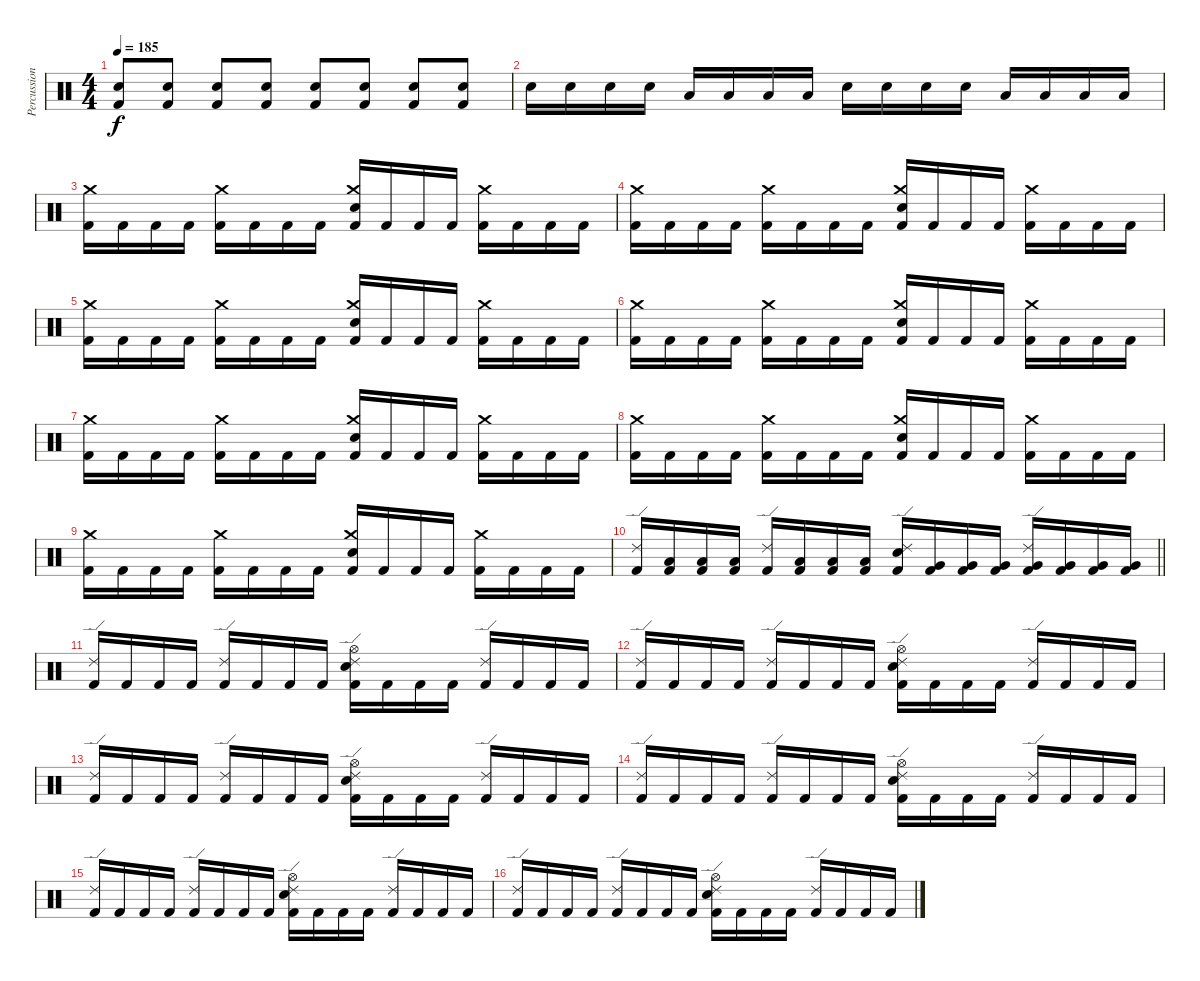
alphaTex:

\track ("Percussion" "Percussion") {instrument percussion}
\staff {score}
\articulation defaults
\ts (4 4)
\tempo 185
\clef neutral
\ks c
("Electric Snare (hit)" "Kick (hit) 2").8{dy f} ("Electric Snare (hit)" "Kick (hit) 2").8 ("Electric Snare (hit)" "Kick (hit) 2").8 ("Electric Snare (hit)" "Kick (hit) 2").8 ("Electric Snare (hit)" "Kick (hit) 2").8 ("Electric Snare (hit)" "Kick (hit) 2").8 ("Electric Snare (hit)" "Kick (hit) 2").8 ("Electric Snare (hit)" "Kick (hit) 2").8 |
"Electric Snare (hit)".16 "Electric Snare (hit)".16 "Electric Snare (hit)".16 "Electric Snare (hit)".16 "Low Floor Tom (hit)".16 "Low Floor Tom (hit)".16 "Low Floor Tom (hit)".16 "Low Floor Tom (hit)".16 "Electric Snare (hit)".16 "Electric Snare (hit)".16 "Electric Snare (hit)".16 "Electric Snare (hit)".16 "Low Floor Tom (hit)".16 "Low Floor Tom (hit)".16 "Low Floor Tom (hit)".16 "Low Floor Tom (hit)".16 |
("Crash medium (hit)" "Kick (hit) 2").16 "Kick (hit) 2".16 "Kick (hit) 2".16 "Kick (hit) 2".16 ("Crash medium (hit)" "Kick (hit) 2").16 "Kick (hit) 2".16 "Kick (hit) 2".16 "Kick (hit) 2".16 ("Crash medium (hit)" "Snare (hit) 2" "Kick (hit) 2").16 "Kick (hit) 2".16 "Kick (hit) 2".16 "Kick (hit) 2".16 ("Crash medium (hit)" "Kick (hit) 2").16 "Kick (hit) 2".16 "Kick (hit) 2".16 "Kick (hit) 2".16 |
("Crash medium (hit)" "Kick (hit) 2").16 "Kick (hit) 2".16 "Kick (hit) 2".16 "Kick (hit) 2".16 ("Crash medium (hit)" "Kick (hit) 2").16 "Kick (hit) 2".16 "Kick (hit) 2".16 "Kick (hit) 2".16 ("Crash medium (hit)" "Snare (hit) 2" "Kick (hit) 2").16 "Kick (hit) 2".16 "Kick (hit) 2".16 "Kick (hit) 2".16 ("Crash medium (hit)" "Kick (hit) 2").16 "Kick (hit) 2".16 "Kick (hit) 2".16 "Kick (hit) 2".16 |
("Crash medium (hit)" "Kick (hit) 2").16 "Kick (hit) 2".16 "Kick (hit) 2".16 "Kick (hit) 2".16 ("Crash medium (hit)" "Kick (hit) 2").16 "Kick (hit) 2".16 "Kick (hit) 2".16 "Kick (hit) 2".16 ("Crash medium (hit)" "Snare (hit) 2" "Kick (hit) 2").16 "Kick (hit) 2".16 "Kick (hit) 2".16 "Kick (hit) 2".16 ("Crash medium (hit)" "Kick (hit) 2").16 "Kick (hit) 2".16 "Kick (hit) 2".16 "Kick (hit) 2".16 |
("Crash medium (hit)" "Kick (hit) 2").16 "Kick (hit) 2".16 "Kick (hit) 2".16 "Kick (hit) 2".16 ("Crash medium (hit)" "Kick (hit) 2").16 "Kick (hit) 2".16 "Kick (hit) 2".16 "Kick (hit) 2".16 ("Crash medium (hit)" "Snare (hit) 2" "Kick (hit) 2").16 "Kick (hit) 2".16 "Kick (hit) 2".16 "Kick (hit) 2".16 ("Crash medium (hit)" "Kick (hit) 2").16 "Kick (hit) 2".16 "Kick (hit) 2".16 "Kick (hit) 2".16 |
("Crash medium (hit)" "Kick (hit) 2").16 "Kick (hit) 2".16 "Kick (hit) 2".16 "Kick (hit) 2".16 ("Crash medium (hit)" "Kick (hit) 2").16 "Kick (hit) 2".16 "Kick (hit) 2".16 "Kick (hit) 2".16 ("Crash medium (hit)" "Snare (hit) 2" "Kick (hit) 2").16 "Kick (hit) 2".16 "Kick (hit) 2".16 "Kick (hit) 2".16 ("Crash medium (hit)" "Kick (hit) 2").16 "Kick (hit) 2".16 "Kick (hit) 2".16 "Kick (hit) 2".16 |
("Crash medium (hit)" "Kick (hit) 2").16 "Kick (hit) 2".16 "Kick (hit) 2".16 "Kick (hit) 2".16 ("Crash medium (hit)" "Kick (hit) 2").16 "Kick (hit) 2".16 "Kick (hit) 2".16 "Kick (hit) 2".16 ("Crash medium (hit)" "Snare (hit) 2" "Kick (hit) 2").16 "Kick (hit) 2".16 "Kick (hit) 2".16 "Kick (hit) 2".16 ("Crash medium (hit)" "Kick (hit) 2").16 "Kick (hit) 2".16 "Kick (hit) 2".16 "Kick (hit) 2".16 |
("Crash medium (hit)" "Kick (hit) 2").16 "Kick (hit) 2".16 "Kick (hit) 2".16 "Kick (hit) 2".16 ("Crash medium (hit)" "Kick (hit) 2").16 "Kick (hit) 2".16 "Kick (hit) 2".16 "Kick (hit) 2".16 ("Crash medium (hit)" "Snare (hit) 2" "Kick (hit) 2").16 "Kick (hit) 2".16 "Kick (hit) 2".16 "Kick (hit) 2".16 ("Crash medium (hit)" "Kick (hit) 2").16 "Kick (hit) 2".16 "Kick (hit) 2".16 "Kick (hit) 2".16 |
\barLineRight lightlight
("Ride (edge) 2" "Kick (hit) 2").16 ("Low Floor Tom (hit)" "Kick (hit) 2").16 ("Low Floor Tom (hit)" "Kick (hit) 2").16 ("Low Floor Tom (hit)" "Kick (hit) 2").16 ("Ride (edge) 2" "Kick (hit) 2").16 ("Low Floor Tom (hit)" "Kick (hit) 2").16 ("Low Floor Tom (hit)" "Kick (hit) 2").16 ("Low Floor Tom (hit)" "Kick (hit) 2").16 ("Ride (edge) 2" "Snare (hit) 2" "Kick (hit) 2").16 ("Very Low Tom (hit)" "Kick (hit) 2").16 ("Very Low Tom (hit)" "Kick (hit) 2").16 ("Very Low Tom (hit)" "Kick (hit) 2").16 ("Ride (edge) 2" "Very Low Tom (hit)" "Kick (hit) 2").16 ("Very Low Tom (hit)" "Kick (hit) 2").16 ("Very Low Tom (hit)" "Kick (hit) 2").16 ("Very Low Tom (hit)" "Kick (hit) 2").16 |
("Ride (edge) 2" "Kick (hit) 2").16 "Kick (hit) 2".16 "Kick (hit) 2".16 "Kick (hit) 2".16 ("Ride (edge) 2" "Kick (hit) 2").16 "Kick (hit) 2".16 "Kick (hit) 2".16 "Kick (hit) 2".16 ("Hi-Hat (open)" "Ride (edge) 2" "Snare (hit) 2" "Kick (hit) 2").16 "Kick (hit) 2".16 "Kick (hit) 2".16 "Kick (hit) 2".16 ("Ride (edge) 2" "Kick (hit) 2").16 "Kick (hit) 2".16 "Kick (hit) 2".16 "Kick (hit) 2".16 |
("Ride (edge) 2" "Kick (hit) 2").16 "Kick (hit) 2".16 "Kick (hit) 2".16 "Kick (hit) 2".16 ("Ride (edge) 2" "Kick (hit) 2").16 "Kick (hit) 2".16 "Kick (hit) 2".16 "Kick (hit) 2".16 ("Hi-Hat (open)" "Ride (edge) 2" "Snare (hit) 2" "Kick (hit) 2").16 "Kick (hit) 2".16 "Kick (hit) 2".16 "Kick (hit) 2".16 ("Ride (edge) 2" "Kick (hit) 2").16 "Kick (hit) 2".16 "Kick (hit) 2".16 "Kick (hit) 2".16 |
("Ride (edge) 2" "Kick (hit) 2").16 "Kick (hit) 2".16 "Kick (hit) 2".16 "Kick (hit) 2".16 ("Ride (edge) 2" "Kick (hit) 2").16 "Kick (hit) 2".16 "Kick (hit) 2".16 "Kick (hit) 2".16 ("Hi-Hat (open)" "Ride (edge) 2" "Snare (hit) 2" "Kick (hit) 2").16 "Kick (hit) 2".16 "Kick (hit) 2".16 "Kick (hit) 2".16 ("Ride (edge) 2" "Kick (hit) 2").16 "Kick (hit) 2".16 "Kick (hit) 2".16 "Kick (hit) 2".16 |
("Ride (edge) 2" "Kick (hit) 2").16 "Kick (hit) 2".16 "Kick (hit) 2".16 "Kick (hit) 2".16 ("Ride (edge) 2" "Kick (hit) 2").16 "Kick (hit) 2".16 "Kick (hit) 2".16 "Kick (hit) 2".16 ("Hi-Hat (open)" "Ride (edge) 2" "Snare (hit) 2" "Kick (hit) 2").16 "Kick (hit) 2".16 "Kick (hit) 2".16 "Kick (hit) 2".16 ("Ride (edge) 2" "Kick (hit) 2").16 "Kick (hit) 2".16 "Kick (hit) 2".16 "Kick (hit) 2".16 |
("Ride (edge) 2" "Kick (hit) 2").16 "Kick (hit) 2".16 "Kick (hit) 2".16 "Kick (hit) 2".16 ("Ride (edge) 2" "Kick (hit) 2").16 "Kick (hit) 2".16 "Kick (hit) 2".16 "Kick (hit) 2".16 ("Hi-Hat (open)" "Ride (edge) 2" "Snare (hit) 2" "Kick (hit) 2").16 "Kick (hit) 2".16 "Kick (hit) 2".16 "Kick (hit) 2".16 ("Ride (edge) 2" "Kick (hit) 2").16 "Kick (hit) 2".16 "Kick (hit) 2".16 "Kick (hit) 2".16 |
("Ride (edge) 2" "Kick (hit) 2").16 "Kick (hit) 2".16 "Kick (hit) 2".16 "Kick (hit) 2".16 ("Ride (edge) 2" "Kick (hit) 2").16 "Kick (hit) 2".16 "Kick (hit) 2".16 "Kick (hit) 2".16 ("Hi-Hat (open)" "Ride (edge) 2" "Snare (hit) 2" "Kick (hit) 2").16 "Kick (hit) 2".16 "Kick (hit) 2".16 "Kick (hit) 2".16 ("Ride (edge) 2" "Kick (hit) 2").16 "Kick (hit) 2".16 "Kick (hit) 2".16 "Kick (hit) 2".16
